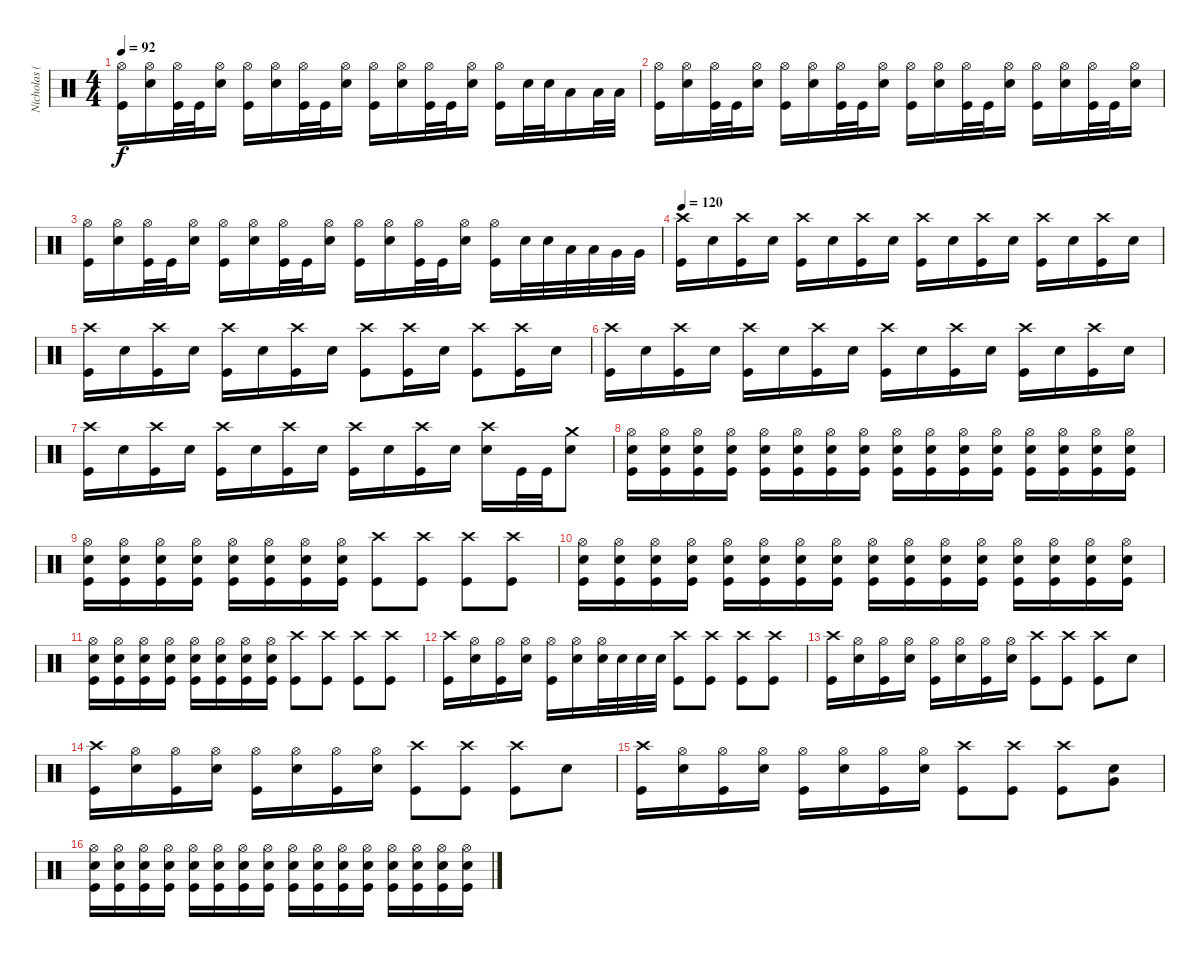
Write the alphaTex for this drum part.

\track ("Nicholas (Drums)" "Nicholas (") {instrument percussion}
\staff {score}
\articulation defaults
\ts (4 4)
\tempo 92
\clef neutral
\ks c
("Hi-Hat (open)" "Kick (hit)").16{dy f} ("Hi-Hat (open)" "Electric Snare (hit)").16 ("Hi-Hat (open)" "Kick (hit)").32 "Kick (hit)".32 ("Hi-Hat (open)" "Electric Snare (hit)").16 ("Hi-Hat (open)" "Kick (hit)").16 ("Hi-Hat (open)" "Electric Snare (hit)").16 ("Hi-Hat (open)" "Kick (hit)").32 "Kick (hit)".32 ("Hi-Hat (open)" "Electric Snare (hit)").16 ("Hi-Hat (open)" "Kick (hit)").16 ("Hi-Hat (open)" "Electric Snare (hit)").16 ("Hi-Hat (open)" "Kick (hit)").32 "Kick (hit)".32 ("Hi-Hat (open)" "Electric Snare (hit)").16 ("Hi-Hat (open)" "Kick (hit)").16 "Electric Snare (hit)".32 "Electric Snare (hit)".32 "Low Tom (hit)".16 "Low Tom (hit)".32 "Low Tom (hit)".32 |
("Hi-Hat (open)" "Kick (hit)").16 ("Hi-Hat (open)" "Electric Snare (hit)").16 ("Hi-Hat (open)" "Kick (hit)").32 "Kick (hit)".32 ("Hi-Hat (open)" "Electric Snare (hit)").16 ("Hi-Hat (open)" "Kick (hit)").16 ("Hi-Hat (open)" "Electric Snare (hit)").16 ("Hi-Hat (open)" "Kick (hit)").32 "Kick (hit)".32 ("Hi-Hat (open)" "Electric Snare (hit)").16 ("Hi-Hat (open)" "Kick (hit)").16 ("Hi-Hat (open)" "Electric Snare (hit)").16 ("Hi-Hat (open)" "Kick (hit)").32 "Kick (hit)".32 ("Hi-Hat (open)" "Electric Snare (hit)").16 ("Hi-Hat (open)" "Kick (hit)").16 ("Hi-Hat (open)" "Electric Snare (hit)").16 ("Hi-Hat (open)" "Kick (hit)").32 "Kick (hit)".32 ("Hi-Hat (open)" "Electric Snare (hit)").16 |
("Hi-Hat (open)" "Kick (hit)").16 ("Hi-Hat (open)" "Electric Snare (hit)").16 ("Hi-Hat (open)" "Kick (hit)").32 "Kick (hit)".32 ("Hi-Hat (open)" "Electric Snare (hit)").16 ("Hi-Hat (open)" "Kick (hit)").16 ("Hi-Hat (open)" "Electric Snare (hit)").16 ("Hi-Hat (open)" "Kick (hit)").32 "Kick (hit)".32 ("Hi-Hat (open)" "Electric Snare (hit)").16 ("Hi-Hat (open)" "Kick (hit)").16 ("Hi-Hat (open)" "Electric Snare (hit)").16 ("Hi-Hat (open)" "Kick (hit)").32 "Kick (hit)".32 ("Hi-Hat (open)" "Electric Snare (hit)").16 ("Hi-Hat (open)" "Kick (hit)").16 "Electric Snare (hit)".32 "Electric Snare (hit)".32 "Low Tom (hit)".32 "Low Tom (hit)".32 "Very Low Tom (hit)".32 "Very Low Tom (hit)".32 |
\tempo 120
("Crash high (hit)" "Kick (hit)").16 "Electric Snare (hit)".16 ("Crash high (hit)" "Kick (hit)").16 "Electric Snare (hit)".16 ("Crash high (hit)" "Kick (hit)").16 "Electric Snare (hit)".16 ("Crash high (hit)" "Kick (hit)").16 "Electric Snare (hit)".16 ("Crash high (hit)" "Kick (hit)").16 "Electric Snare (hit)".16 ("Crash high (hit)" "Kick (hit)").16 "Electric Snare (hit)".16 ("Crash high (hit)" "Kick (hit)").16 "Electric Snare (hit)".16 ("Crash high (hit)" "Kick (hit)").16 "Electric Snare (hit)".16 |
("Crash high (hit)" "Kick (hit)").16 "Electric Snare (hit)".16 ("Crash high (hit)" "Kick (hit)").16 "Electric Snare (hit)".16 ("Crash high (hit)" "Kick (hit)").16 "Electric Snare (hit)".16 ("Crash high (hit)" "Kick (hit)").16 "Electric Snare (hit)".16 ("Crash high (hit)" "Kick (hit)").8 ("Crash high (hit)" "Kick (hit)").16 "Electric Snare (hit)".16 ("Crash high (hit)" "Kick (hit)").8 ("Crash high (hit)" "Kick (hit)").16 "Electric Snare (hit)".16 |
("Crash high (hit)" "Kick (hit)").16 "Electric Snare (hit)".16 ("Crash high (hit)" "Kick (hit)").16 "Electric Snare (hit)".16 ("Crash high (hit)" "Kick (hit)").16 "Electric Snare (hit)".16 ("Crash high (hit)" "Kick (hit)").16 "Electric Snare (hit)".16 ("Crash high (hit)" "Kick (hit)").16 "Electric Snare (hit)".16 ("Crash high (hit)" "Kick (hit)").16 "Electric Snare (hit)".16 ("Crash high (hit)" "Kick (hit)").16 "Electric Snare (hit)".16 ("Crash high (hit)" "Kick (hit)").16 "Electric Snare (hit)".16 |
("Crash high (hit)" "Kick (hit)").16 "Electric Snare (hit)".16 ("Crash high (hit)" "Kick (hit)").16 "Electric Snare (hit)".16 ("Crash high (hit)" "Kick (hit)").16 "Electric Snare (hit)".16 ("Crash high (hit)" "Kick (hit)").16 "Electric Snare (hit)".16 ("Crash high (hit)" "Kick (hit)").16 "Electric Snare (hit)".16 ("Crash high (hit)" "Kick (hit)").16 "Electric Snare (hit)".16 ("Crash high (hit)" "Electric Snare (hit)").16 "Kick (hit)".32 "Kick (hit)".32 ("Crash medium (hit)" "Electric Snare (hit)").8 |
("Hi-Hat (open)" "Electric Snare (hit)" "Kick (hit)").16 ("Hi-Hat (open)" "Electric Snare (hit)" "Kick (hit)").16 ("Hi-Hat (open)" "Electric Snare (hit)" "Kick (hit)").16 ("Hi-Hat (open)" "Electric Snare (hit)" "Kick (hit)").16 ("Hi-Hat (open)" "Electric Snare (hit)" "Kick (hit)").16 ("Hi-Hat (open)" "Electric Snare (hit)" "Kick (hit)").16 ("Hi-Hat (open)" "Electric Snare (hit)" "Kick (hit)").16 ("Hi-Hat (open)" "Electric Snare (hit)" "Kick (hit)").16 ("Hi-Hat (open)" "Electric Snare (hit)" "Kick (hit)").16 ("Hi-Hat (open)" "Electric Snare (hit)" "Kick (hit)").16 ("Hi-Hat (open)" "Electric Snare (hit)" "Kick (hit)").16 ("Hi-Hat (open)" "Electric Snare (hit)" "Kick (hit)").16 ("Hi-Hat (open)" "Electric Snare (hit)" "Kick (hit)").16 ("Hi-Hat (open)" "Electric Snare (hit)" "Kick (hit)").16 ("Hi-Hat (open)" "Electric Snare (hit)" "Kick (hit)").16 ("Hi-Hat (open)" "Electric Snare (hit)" "Kick (hit)").16 |
("Hi-Hat (open)" "Electric Snare (hit)" "Kick (hit)").16 ("Hi-Hat (open)" "Electric Snare (hit)" "Kick (hit)").16 ("Hi-Hat (open)" "Electric Snare (hit)" "Kick (hit)").16 ("Hi-Hat (open)" "Electric Snare (hit)" "Kick (hit)").16 ("Hi-Hat (open)" "Electric Snare (hit)" "Kick (hit)").16 ("Hi-Hat (open)" "Electric Snare (hit)" "Kick (hit)").16 ("Hi-Hat (open)" "Electric Snare (hit)" "Kick (hit)").16 ("Hi-Hat (open)" "Electric Snare (hit)" "Kick (hit)").16 ("Crash high (hit)" "Kick (hit)").8 ("Crash high (hit)" "Kick (hit)").8 ("Crash high (hit)" "Kick (hit)").8 ("Crash high (hit)" "Kick (hit)").8 |
("Hi-Hat (open)" "Electric Snare (hit)" "Kick (hit)").16 ("Hi-Hat (open)" "Electric Snare (hit)" "Kick (hit)").16 ("Hi-Hat (open)" "Electric Snare (hit)" "Kick (hit)").16 ("Hi-Hat (open)" "Electric Snare (hit)" "Kick (hit)").16 ("Hi-Hat (open)" "Electric Snare (hit)" "Kick (hit)").16 ("Hi-Hat (open)" "Electric Snare (hit)" "Kick (hit)").16 ("Hi-Hat (open)" "Electric Snare (hit)" "Kick (hit)").16 ("Hi-Hat (open)" "Electric Snare (hit)" "Kick (hit)").16 ("Hi-Hat (open)" "Electric Snare (hit)" "Kick (hit)").16 ("Hi-Hat (open)" "Electric Snare (hit)" "Kick (hit)").16 ("Hi-Hat (open)" "Electric Snare (hit)" "Kick (hit)").16 ("Hi-Hat (open)" "Electric Snare (hit)" "Kick (hit)").16 ("Hi-Hat (open)" "Electric Snare (hit)" "Kick (hit)").16 ("Hi-Hat (open)" "Electric Snare (hit)" "Kick (hit)").16 ("Hi-Hat (open)" "Electric Snare (hit)" "Kick (hit)").16 ("Hi-Hat (open)" "Electric Snare (hit)" "Kick (hit)").16 |
("Hi-Hat (open)" "Electric Snare (hit)" "Kick (hit)").16 ("Hi-Hat (open)" "Electric Snare (hit)" "Kick (hit)").16 ("Hi-Hat (open)" "Electric Snare (hit)" "Kick (hit)").16 ("Hi-Hat (open)" "Electric Snare (hit)" "Kick (hit)").16 ("Hi-Hat (open)" "Electric Snare (hit)" "Kick (hit)").16 ("Hi-Hat (open)" "Electric Snare (hit)" "Kick (hit)").16 ("Hi-Hat (open)" "Electric Snare (hit)" "Kick (hit)").16 ("Hi-Hat (open)" "Electric Snare (hit)" "Kick (hit)").16 ("Crash high (hit)" "Kick (hit)").8 ("Crash high (hit)" "Kick (hit)").8 ("Crash high (hit)" "Kick (hit)").8 ("Crash high (hit)" "Kick (hit)").8 |
("Crash high (hit)" "Kick (hit)").16 ("Hi-Hat (open)" "Electric Snare (hit)").16 ("Hi-Hat (open)" "Kick (hit)").16 ("Hi-Hat (open)" "Electric Snare (hit)").16 ("Hi-Hat (open)" "Kick (hit)").16 ("Hi-Hat (open)" "Electric Snare (hit)").16 ("Hi-Hat (open)" "Electric Snare (hit)").32 "Electric Snare (hit)".32 "Electric Snare (hit)".32 "Electric Snare (hit)".32 ("Crash high (hit)" "Kick (hit)").8 ("Crash high (hit)" "Kick (hit)").8 ("Crash high (hit)" "Kick (hit)").8 ("Crash high (hit)" "Kick (hit)").8 |
("Crash high (hit)" "Kick (hit)").16 ("Hi-Hat (open)" "Electric Snare (hit)").16 ("Hi-Hat (open)" "Kick (hit)").16 ("Hi-Hat (open)" "Electric Snare (hit)").16 ("Hi-Hat (open)" "Kick (hit)").16 ("Hi-Hat (open)" "Electric Snare (hit)").16 ("Hi-Hat (open)" "Kick (hit)").16 ("Hi-Hat (open)" "Electric Snare (hit)").16 ("Crash high (hit)" "Kick (hit)").8 ("Crash high (hit)" "Kick (hit)").8 ("Crash high (hit)" "Kick (hit)").8 "Electric Snare (hit)".8 |
("Crash high (hit)" "Kick (hit)").16 ("Hi-Hat (open)" "Electric Snare (hit)").16 ("Hi-Hat (open)" "Kick (hit)").16 ("Hi-Hat (open)" "Electric Snare (hit)").16 ("Hi-Hat (open)" "Kick (hit)").16 ("Hi-Hat (open)" "Electric Snare (hit)").16 ("Hi-Hat (open)" "Kick (hit)").16 ("Hi-Hat (open)" "Electric Snare (hit)").16 ("Crash high (hit)" "Kick (hit)").8 ("Crash high (hit)" "Kick (hit)").8 ("Crash high (hit)" "Kick (hit)").8 "Electric Snare (hit)".8 |
("Crash high (hit)" "Kick (hit)").16 ("Hi-Hat (open)" "Electric Snare (hit)").16 ("Hi-Hat (open)" "Kick (hit)").16 ("Hi-Hat (open)" "Electric Snare (hit)").16 ("Hi-Hat (open)" "Kick (hit)").16 ("Hi-Hat (open)" "Electric Snare (hit)").16 ("Hi-Hat (open)" "Kick (hit)").16 ("Hi-Hat (open)" "Electric Snare (hit)").16 ("Crash high (hit)" "Kick (hit)").8 ("Crash high (hit)" "Kick (hit)").8 ("Crash high (hit)" "Kick (hit)").8 ("Electric Snare (hit)" "Very Low Tom (hit)").8 |
("Hi-Hat (open)" "Electric Snare (hit)" "Kick (hit)").16 ("Hi-Hat (open)" "Electric Snare (hit)" "Kick (hit)").16 ("Hi-Hat (open)" "Electric Snare (hit)" "Kick (hit)").16 ("Hi-Hat (open)" "Electric Snare (hit)" "Kick (hit)").16 ("Hi-Hat (open)" "Electric Snare (hit)" "Kick (hit)").16 ("Hi-Hat (open)" "Electric Snare (hit)" "Kick (hit)").16 ("Hi-Hat (open)" "Electric Snare (hit)" "Kick (hit)").16 ("Hi-Hat (open)" "Electric Snare (hit)" "Kick (hit)").16 ("Hi-Hat (open)" "Electric Snare (hit)" "Kick (hit)").16 ("Hi-Hat (open)" "Electric Snare (hit)" "Kick (hit)").16 ("Hi-Hat (open)" "Electric Snare (hit)" "Kick (hit)").16 ("Hi-Hat (open)" "Electric Snare (hit)" "Kick (hit)").16 ("Hi-Hat (open)" "Electric Snare (hit)" "Kick (hit)").16 ("Hi-Hat (open)" "Electric Snare (hit)" "Kick (hit)").16 ("Hi-Hat (open)" "Electric Snare (hit)" "Kick (hit)").16 ("Hi-Hat (open)" "Electric Snare (hit)" "Kick (hit)").16
